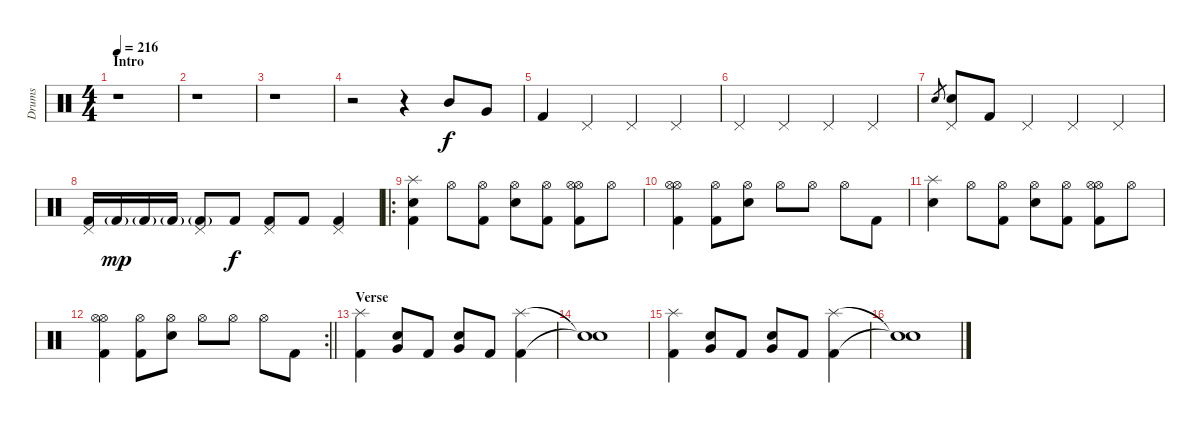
\track ("Drums" "Drums") {instrument percussion}
\staff {score}
\articulation defaults
\ts (4 4)
\section ("" "Intro")
\tempo 216
\clef neutral
\ks c
r.1{dy f} |
r.1 |
r.1 |
r.2 r.4 "Mid Tom (hit)".8 "Very Low Tom (hit)".8 |
"Kick (hit) 2".4 "Pedal Hi-Hat (hit)".4 "Pedal Hi-Hat (hit)".4 "Pedal Hi-Hat (hit)".4 |
"Pedal Hi-Hat (hit)".4 "Pedal Hi-Hat (hit)".4 "Pedal Hi-Hat (hit)".4 "Pedal Hi-Hat (hit)".4 |
"Electric Snare (hit)".8{gr} ("Pedal Hi-Hat (hit)" "Electric Snare (hit)").8 "Kick (hit) 2".8 "Pedal Hi-Hat (hit)".4 "Pedal Hi-Hat (hit)".4 "Pedal Hi-Hat (hit)".4 |
("Pedal Hi-Hat (hit)" "Kick (hit) 2").16 "Kick (hit) 2"{g}.16{dy mp} "Kick (hit) 2"{g}.16 "Kick (hit) 2"{g}.16 ("Pedal Hi-Hat (hit)" "Kick (hit) 2"{g}).8 "Kick (hit) 2".8{dy f} ("Pedal Hi-Hat (hit)" "Kick (hit) 2").8 "Kick (hit) 2".8 ("Pedal Hi-Hat (hit)" "Kick (hit) 2").4 |
\ro
("Splash (hit)" "Electric Snare (hit)" "Kick (hit) 2").4 "Hi-Hat (open)".8 ("Hi-Hat (open)" "Kick (hit) 2").8 ("Hi-Hat (open)" "Electric Snare (hit)").8 ("Hi-Hat (open)" "Kick (hit) 2").8 ("Hi-Hat (open)" "Hi-Hat (open)" "Kick (hit) 2").8 "Hi-Hat (open)".8 |
("Hi-Hat (open)" "Hi-Hat (open)" "Kick (hit) 2").4 ("Hi-Hat (open)" "Kick (hit) 2").8 ("Hi-Hat (open)" "Electric Snare (hit)").8 "Hi-Hat (open)".8 "Hi-Hat (open)".8 "Hi-Hat (open)".8 "Kick (hit) 2".8 |
("Splash (hit)" "Electric Snare (hit)").4 "Hi-Hat (open)".8 ("Hi-Hat (open)" "Kick (hit) 2").8 ("Hi-Hat (open)" "Electric Snare (hit)").8 ("Hi-Hat (open)" "Kick (hit) 2").8 ("Hi-Hat (open)" "Hi-Hat (open)" "Kick (hit) 2").8 "Hi-Hat (open)".8 |
\rc 2
\barLineRight lightlight
("Hi-Hat (open)" "Hi-Hat (open)" "Kick (hit) 2").4 ("Hi-Hat (open)" "Kick (hit) 2").8 ("Hi-Hat (open)" "Electric Snare (hit)").8 "Hi-Hat (open)".8 "Hi-Hat (open)".8 "Hi-Hat (open)".8 "Kick (hit) 2".8 |
\section ("" "Verse")
("Splash (hit)" "Kick (hit) 2").4 ("Very Low Tom (hit)" "Electric Snare (hit)").8 "Kick (hit) 2".8 ("Very Low Tom (hit)" "Electric Snare (hit)").8 "Kick (hit) 2".8 ("Splash (hit)" "Kick (hit) 2").4 |
("Snare (hit)"{t} "Snare (hit)"{t}).1 |
("Splash (hit)" "Kick (hit) 2").4 ("Very Low Tom (hit)" "Electric Snare (hit)").8 "Kick (hit) 2".8 ("Very Low Tom (hit)" "Electric Snare (hit)").8 "Kick (hit) 2".8 ("Splash (hit)" "Kick (hit) 2").4 |
("Snare (hit)"{t} "Snare (hit)"{t}).1
